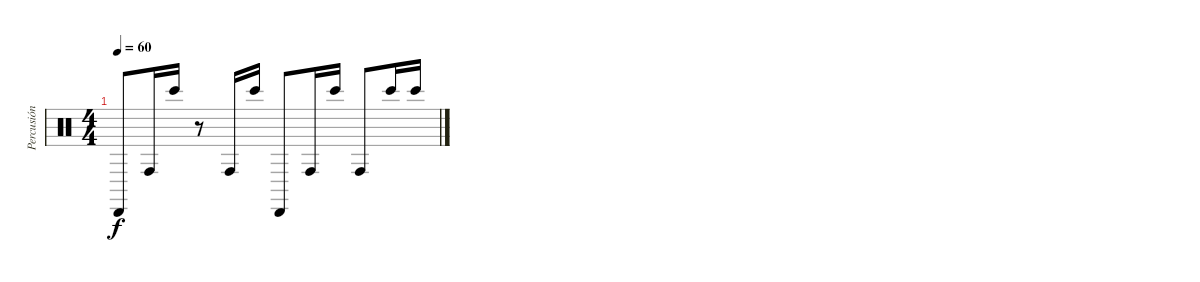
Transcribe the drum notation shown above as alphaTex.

\track ("Percusión" "Percusión") {instrument percussion}
\staff {score}
\articulation defaults
\ts (4 4)
\tempo 60
\clef neutral
\ks c "Cabasa (hit)".8{dy f} "Conga high (hit)".16 "Bongo High (hit)".16
r.8 "Conga high (hit)".16 "Bongo High (hit)".16 "Cabasa (hit)".8 "Conga high (hit)".16 "Bongo High (hit)".16 "Conga high (hit)".8 "Bongo High (hit)".16 "Bongo High (hit)".16
